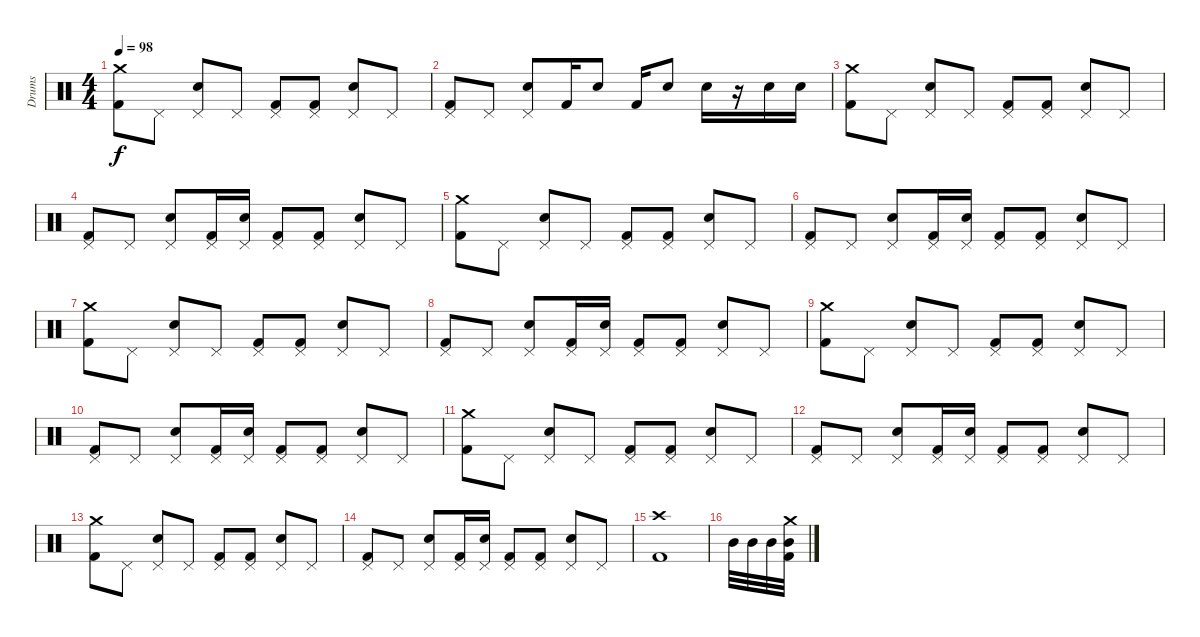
\track ("Drums" "Drums") {instrument percussion}
\staff {score}
\articulation defaults
\ts (4 4)
\tempo 98
\clef neutral
\ks c
("Crash medium (hit)" "Kick (hit) 2").8{dy f} "Pedal Hi-Hat (hit)".8 ("Pedal Hi-Hat (hit)" "Snare (hit) 2").8 "Pedal Hi-Hat (hit)".8 ("Pedal Hi-Hat (hit)" "Kick (hit) 2").8 ("Pedal Hi-Hat (hit)" "Kick (hit) 2").8 ("Pedal Hi-Hat (hit)" "Snare (hit) 2").8 "Pedal Hi-Hat (hit)".8 |
("Pedal Hi-Hat (hit)" "Kick (hit) 2").8 "Pedal Hi-Hat (hit)".8 ("Pedal Hi-Hat (hit)" "Snare (hit) 2").8 "Kick (hit) 2".16 "Snare (hit) 2".8 "Kick (hit) 2".16 "Snare (hit) 2".8 "Snare (hit) 2".16 r.16 "Snare (hit) 2".16 "Snare (hit) 2".16 |
("Crash medium (hit)" "Kick (hit) 2").8 "Pedal Hi-Hat (hit)".8 ("Pedal Hi-Hat (hit)" "Snare (hit) 2").8 "Pedal Hi-Hat (hit)".8 ("Pedal Hi-Hat (hit)" "Kick (hit) 2").8 ("Pedal Hi-Hat (hit)" "Kick (hit) 2").8 ("Pedal Hi-Hat (hit)" "Snare (hit) 2").8 "Pedal Hi-Hat (hit)".8 |
("Pedal Hi-Hat (hit)" "Kick (hit) 2").8 "Pedal Hi-Hat (hit)".8 ("Pedal Hi-Hat (hit)" "Snare (hit) 2").8 ("Pedal Hi-Hat (hit)" "Kick (hit) 2").16 ("Pedal Hi-Hat (hit)" "Snare (hit) 2").16 ("Pedal Hi-Hat (hit)" "Kick (hit) 2").8 ("Pedal Hi-Hat (hit)" "Kick (hit) 2").8 ("Pedal Hi-Hat (hit)" "Snare (hit) 2").8 "Pedal Hi-Hat (hit)".8 |
("Crash medium (hit)" "Kick (hit) 2").8 "Pedal Hi-Hat (hit)".8 ("Pedal Hi-Hat (hit)" "Snare (hit) 2").8 "Pedal Hi-Hat (hit)".8 ("Pedal Hi-Hat (hit)" "Kick (hit) 2").8 ("Pedal Hi-Hat (hit)" "Kick (hit) 2").8 ("Pedal Hi-Hat (hit)" "Snare (hit) 2").8 "Pedal Hi-Hat (hit)".8 |
("Pedal Hi-Hat (hit)" "Kick (hit) 2").8 "Pedal Hi-Hat (hit)".8 ("Pedal Hi-Hat (hit)" "Snare (hit) 2").8 ("Pedal Hi-Hat (hit)" "Kick (hit) 2").16 ("Pedal Hi-Hat (hit)" "Snare (hit) 2").16 ("Pedal Hi-Hat (hit)" "Kick (hit) 2").8 ("Pedal Hi-Hat (hit)" "Kick (hit) 2").8 ("Pedal Hi-Hat (hit)" "Snare (hit) 2").8 "Pedal Hi-Hat (hit)".8 |
("Crash medium (hit)" "Kick (hit) 2").8 "Pedal Hi-Hat (hit)".8 ("Pedal Hi-Hat (hit)" "Snare (hit) 2").8 "Pedal Hi-Hat (hit)".8 ("Pedal Hi-Hat (hit)" "Kick (hit) 2").8 ("Pedal Hi-Hat (hit)" "Kick (hit) 2").8 ("Pedal Hi-Hat (hit)" "Snare (hit) 2").8 "Pedal Hi-Hat (hit)".8 |
("Pedal Hi-Hat (hit)" "Kick (hit) 2").8 "Pedal Hi-Hat (hit)".8 ("Pedal Hi-Hat (hit)" "Snare (hit) 2").8 ("Pedal Hi-Hat (hit)" "Kick (hit) 2").16 ("Pedal Hi-Hat (hit)" "Snare (hit) 2").16 ("Pedal Hi-Hat (hit)" "Kick (hit) 2").8 ("Pedal Hi-Hat (hit)" "Kick (hit) 2").8 ("Pedal Hi-Hat (hit)" "Snare (hit) 2").8 "Pedal Hi-Hat (hit)".8 |
("Crash medium (hit)" "Kick (hit) 2").8 "Pedal Hi-Hat (hit)".8 ("Pedal Hi-Hat (hit)" "Snare (hit) 2").8 "Pedal Hi-Hat (hit)".8 ("Pedal Hi-Hat (hit)" "Kick (hit) 2").8 ("Pedal Hi-Hat (hit)" "Kick (hit) 2").8 ("Pedal Hi-Hat (hit)" "Snare (hit) 2").8 "Pedal Hi-Hat (hit)".8 |
("Pedal Hi-Hat (hit)" "Kick (hit) 2").8 "Pedal Hi-Hat (hit)".8 ("Pedal Hi-Hat (hit)" "Snare (hit) 2").8 ("Pedal Hi-Hat (hit)" "Kick (hit) 2").16 ("Pedal Hi-Hat (hit)" "Snare (hit) 2").16 ("Pedal Hi-Hat (hit)" "Kick (hit) 2").8 ("Pedal Hi-Hat (hit)" "Kick (hit) 2").8 ("Pedal Hi-Hat (hit)" "Snare (hit) 2").8 "Pedal Hi-Hat (hit)".8 |
("Crash medium (hit)" "Kick (hit) 2").8 "Pedal Hi-Hat (hit)".8 ("Pedal Hi-Hat (hit)" "Snare (hit) 2").8 "Pedal Hi-Hat (hit)".8 ("Pedal Hi-Hat (hit)" "Kick (hit) 2").8 ("Pedal Hi-Hat (hit)" "Kick (hit) 2").8 ("Pedal Hi-Hat (hit)" "Snare (hit) 2").8 "Pedal Hi-Hat (hit)".8 |
("Pedal Hi-Hat (hit)" "Kick (hit) 2").8 "Pedal Hi-Hat (hit)".8 ("Pedal Hi-Hat (hit)" "Snare (hit) 2").8 ("Pedal Hi-Hat (hit)" "Kick (hit) 2").16 ("Pedal Hi-Hat (hit)" "Snare (hit) 2").16 ("Pedal Hi-Hat (hit)" "Kick (hit) 2").8 ("Pedal Hi-Hat (hit)" "Kick (hit) 2").8 ("Pedal Hi-Hat (hit)" "Snare (hit) 2").8 "Pedal Hi-Hat (hit)".8 |
("Crash medium (hit)" "Kick (hit) 2").8 "Pedal Hi-Hat (hit)".8 ("Pedal Hi-Hat (hit)" "Snare (hit) 2").8 "Pedal Hi-Hat (hit)".8 ("Pedal Hi-Hat (hit)" "Kick (hit) 2").8 ("Pedal Hi-Hat (hit)" "Kick (hit) 2").8 ("Pedal Hi-Hat (hit)" "Snare (hit) 2").8 "Pedal Hi-Hat (hit)".8 |
("Pedal Hi-Hat (hit)" "Kick (hit) 2").8 "Pedal Hi-Hat (hit)".8 ("Pedal Hi-Hat (hit)" "Snare (hit) 2").8 ("Pedal Hi-Hat (hit)" "Kick (hit) 2").16 ("Pedal Hi-Hat (hit)" "Snare (hit) 2").16 ("Pedal Hi-Hat (hit)" "Kick (hit) 2").8 ("Pedal Hi-Hat (hit)" "Kick (hit) 2").8 ("Pedal Hi-Hat (hit)" "Snare (hit) 2").8 "Pedal Hi-Hat (hit)".8 |
("Crash high (hit)" "Kick (hit) 2").1 |
"Mid Tom (hit)".32 "Mid Tom (hit)".32 "Mid Tom (hit)".32 ("Crash medium (hit)" "Mid Tom (hit)" "Kick (hit) 2").32
